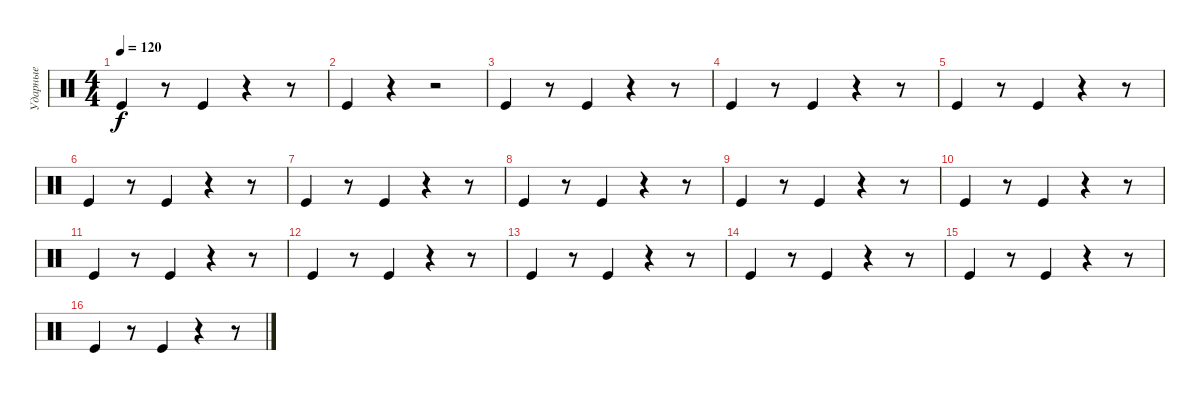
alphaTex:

\track ("Ударные" "Ударные") {instrument percussion}
\staff {score}
\articulation defaults
\ts (4 4)
\tempo 120
\clef neutral
\ks c "Kick (hit)".4{dy f}
r.8 "Kick (hit)".4 r.4 r.8 |
"Kick (hit)".4 r.4 r.2 |
"Kick (hit)".4 r.8 "Kick (hit)".4 r.4 r.8 |
"Kick (hit)".4 r.8 "Kick (hit)".4 r.4 r.8 |
"Kick (hit)".4 r.8 "Kick (hit)".4 r.4 r.8 |
"Kick (hit)".4 r.8 "Kick (hit)".4 r.4 r.8 |
"Kick (hit)".4 r.8 "Kick (hit)".4 r.4 r.8 |
"Kick (hit)".4 r.8 "Kick (hit)".4 r.4 r.8 |
"Kick (hit)".4 r.8 "Kick (hit)".4 r.4 r.8 |
"Kick (hit)".4 r.8 "Kick (hit)".4 r.4 r.8 |
"Kick (hit)".4 r.8 "Kick (hit)".4 r.4 r.8 |
"Kick (hit)".4 r.8 "Kick (hit)".4 r.4 r.8 |
"Kick (hit)".4 r.8 "Kick (hit)".4 r.4 r.8 |
"Kick (hit)".4 r.8 "Kick (hit)".4 r.4 r.8 |
"Kick (hit)".4 r.8 "Kick (hit)".4 r.4 r.8 |
"Kick (hit)".4 r.8 "Kick (hit)".4 r.4 r.8
